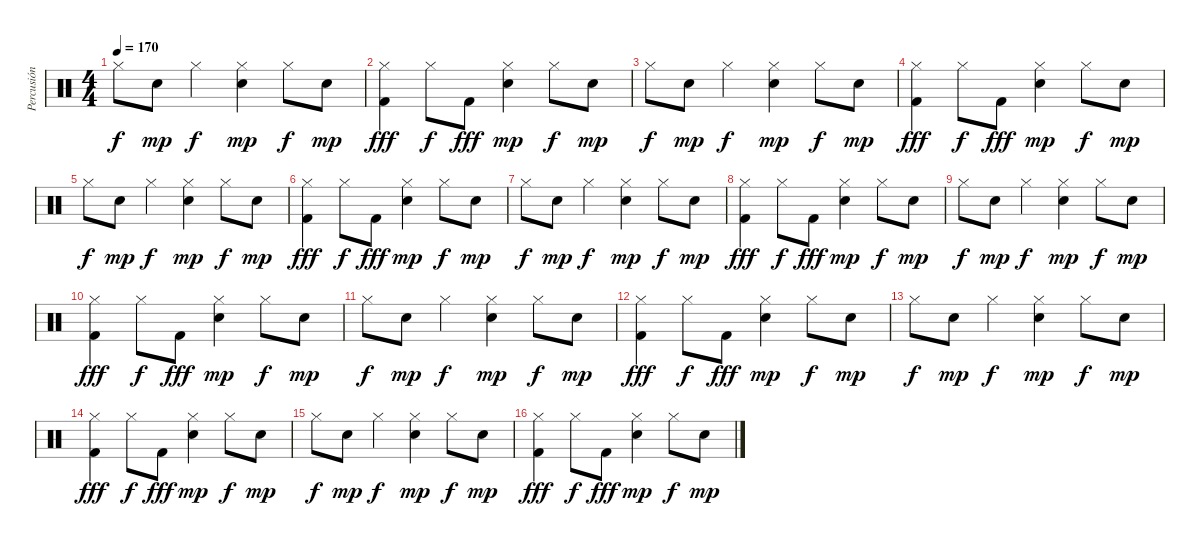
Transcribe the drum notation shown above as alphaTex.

\track ("Percusión" "Percusión") {instrument percussion}
\staff {score}
\articulation defaults
\ts (4 4)
\tempo 170
\clef neutral
\ks c "Hi-Hat (closed)".8{dy f} "Electric Snare (hit)".8{dy mp} "Hi-Hat (closed)".4{dy f}
("Hi-Hat (closed)" "Electric Snare (hit)").4{dy mp} "Hi-Hat (closed)".8{dy f} "Electric Snare (hit)".8{dy mp} |
("Hi-Hat (closed)" "Kick (hit) 2").4{dy fff} "Hi-Hat (closed)".8{dy f} "Kick (hit) 2".8{dy fff} ("Hi-Hat (closed)" "Electric Snare (hit)").4{dy mp} "Hi-Hat (closed)".8{dy f} "Electric Snare (hit)".8{dy mp} |
"Hi-Hat (closed)".8{dy f} "Electric Snare (hit)".8{dy mp} "Hi-Hat (closed)".4{dy f} ("Hi-Hat (closed)" "Electric Snare (hit)").4{dy mp} "Hi-Hat (closed)".8{dy f} "Electric Snare (hit)".8{dy mp} |
("Hi-Hat (closed)" "Kick (hit) 2").4{dy fff} "Hi-Hat (closed)".8{dy f} "Kick (hit) 2".8{dy fff} ("Hi-Hat (closed)" "Electric Snare (hit)").4{dy mp} "Hi-Hat (closed)".8{dy f} "Electric Snare (hit)".8{dy mp} |
"Hi-Hat (closed)".8{dy f} "Electric Snare (hit)".8{dy mp} "Hi-Hat (closed)".4{dy f} ("Hi-Hat (closed)" "Electric Snare (hit)").4{dy mp} "Hi-Hat (closed)".8{dy f} "Electric Snare (hit)".8{dy mp} |
("Hi-Hat (closed)" "Kick (hit) 2").4{dy fff} "Hi-Hat (closed)".8{dy f} "Kick (hit) 2".8{dy fff} ("Hi-Hat (closed)" "Electric Snare (hit)").4{dy mp} "Hi-Hat (closed)".8{dy f} "Electric Snare (hit)".8{dy mp} |
"Hi-Hat (closed)".8{dy f} "Electric Snare (hit)".8{dy mp} "Hi-Hat (closed)".4{dy f} ("Hi-Hat (closed)" "Electric Snare (hit)").4{dy mp} "Hi-Hat (closed)".8{dy f} "Electric Snare (hit)".8{dy mp} |
("Hi-Hat (closed)" "Kick (hit) 2").4{dy fff} "Hi-Hat (closed)".8{dy f} "Kick (hit) 2".8{dy fff} ("Hi-Hat (closed)" "Electric Snare (hit)").4{dy mp} "Hi-Hat (closed)".8{dy f} "Electric Snare (hit)".8{dy mp} |
"Hi-Hat (closed)".8{dy f} "Electric Snare (hit)".8{dy mp} "Hi-Hat (closed)".4{dy f} ("Hi-Hat (closed)" "Electric Snare (hit)").4{dy mp} "Hi-Hat (closed)".8{dy f} "Electric Snare (hit)".8{dy mp} |
("Hi-Hat (closed)" "Kick (hit) 2").4{dy fff} "Hi-Hat (closed)".8{dy f} "Kick (hit) 2".8{dy fff} ("Hi-Hat (closed)" "Electric Snare (hit)").4{dy mp} "Hi-Hat (closed)".8{dy f} "Electric Snare (hit)".8{dy mp} |
"Hi-Hat (closed)".8{dy f} "Electric Snare (hit)".8{dy mp} "Hi-Hat (closed)".4{dy f} ("Hi-Hat (closed)" "Electric Snare (hit)").4{dy mp} "Hi-Hat (closed)".8{dy f} "Electric Snare (hit)".8{dy mp} |
("Hi-Hat (closed)" "Kick (hit) 2").4{dy fff} "Hi-Hat (closed)".8{dy f} "Kick (hit) 2".8{dy fff} ("Hi-Hat (closed)" "Electric Snare (hit)").4{dy mp} "Hi-Hat (closed)".8{dy f} "Electric Snare (hit)".8{dy mp} |
"Hi-Hat (closed)".8{dy f} "Electric Snare (hit)".8{dy mp} "Hi-Hat (closed)".4{dy f} ("Hi-Hat (closed)" "Electric Snare (hit)").4{dy mp} "Hi-Hat (closed)".8{dy f} "Electric Snare (hit)".8{dy mp} |
("Hi-Hat (closed)" "Kick (hit) 2").4{dy fff} "Hi-Hat (closed)".8{dy f} "Kick (hit) 2".8{dy fff} ("Hi-Hat (closed)" "Electric Snare (hit)").4{dy mp} "Hi-Hat (closed)".8{dy f} "Electric Snare (hit)".8{dy mp} |
"Hi-Hat (closed)".8{dy f} "Electric Snare (hit)".8{dy mp} "Hi-Hat (closed)".4{dy f} ("Hi-Hat (closed)" "Electric Snare (hit)").4{dy mp} "Hi-Hat (closed)".8{dy f} "Electric Snare (hit)".8{dy mp} |
("Hi-Hat (closed)" "Kick (hit) 2").4{dy fff} "Hi-Hat (closed)".8{dy f} "Kick (hit) 2".8{dy fff} ("Hi-Hat (closed)" "Electric Snare (hit)").4{dy mp} "Hi-Hat (closed)".8{dy f} "Electric Snare (hit)".8{dy mp}
